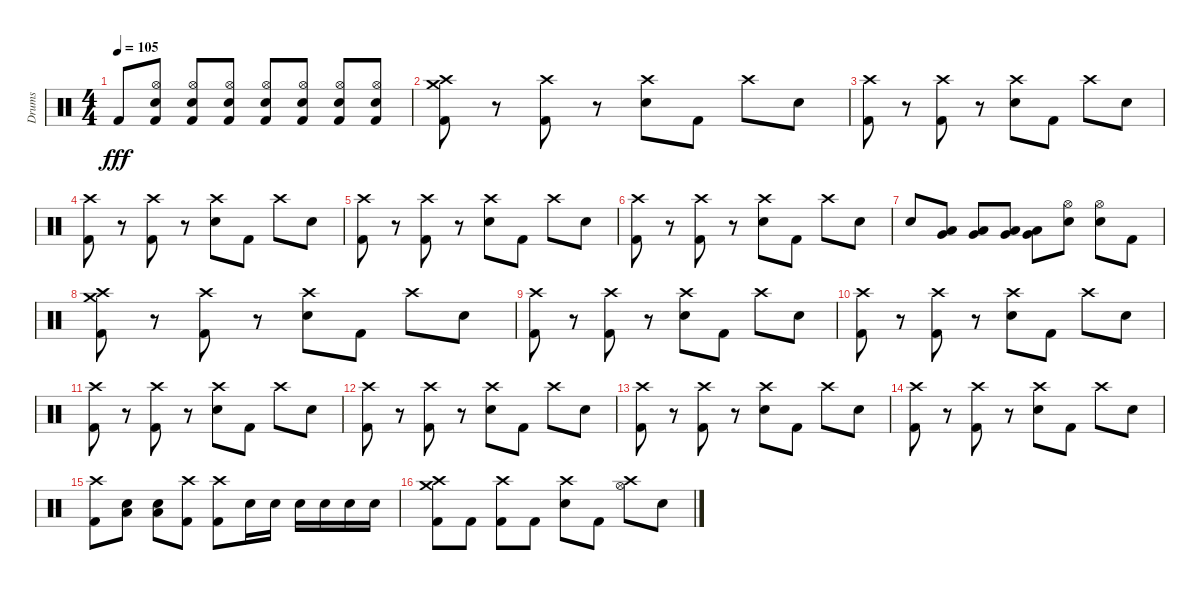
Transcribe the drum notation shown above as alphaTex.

\track ("Drums" "Drums") {instrument percussion}
\staff {score}
\articulation defaults
\ts (4 4)
\tempo 105
\clef neutral
\ks c "Kick (hit) 2".8{dy fff}
("Hi-Hat (open)" "Electric Snare (hit)" "Kick (hit) 2").8 ("Hi-Hat (open)" "Electric Snare (hit)" "Kick (hit) 2").8 ("Hi-Hat (open)" "Electric Snare (hit)" "Kick (hit) 2").8 ("Hi-Hat (open)" "Electric Snare (hit)" "Kick (hit) 2").8 ("Hi-Hat (open)" "Electric Snare (hit)" "Kick (hit) 2").8 ("Hi-Hat (open)" "Electric Snare (hit)" "Kick (hit) 2").8 ("Hi-Hat (open)" "Electric Snare (hit)" "Kick (hit) 2").8 |
("Crash medium (hit)" "Crash high (hit)" "Kick (hit) 2").8 r.8 ("Crash high (hit)" "Kick (hit) 2").8 r.8 ("Crash high (hit)" "Electric Snare (hit)").8 "Kick (hit) 2".8 "Crash high (hit)".8 "Electric Snare (hit)".8 |
("Crash high (hit)" "Kick (hit) 2").8 r.8 ("Crash high (hit)" "Kick (hit) 2").8 r.8 ("Crash high (hit)" "Electric Snare (hit)").8 "Kick (hit) 2".8 "Crash high (hit)".8 "Electric Snare (hit)".8 |
("Crash high (hit)" "Kick (hit) 2").8 r.8 ("Crash high (hit)" "Kick (hit) 2").8 r.8 ("Crash high (hit)" "Electric Snare (hit)").8 "Kick (hit) 2".8 "Crash high (hit)".8 "Electric Snare (hit)".8 |
("Crash high (hit)" "Kick (hit) 2").8 r.8 ("Crash high (hit)" "Kick (hit) 2").8 r.8 ("Crash high (hit)" "Electric Snare (hit)").8 "Kick (hit) 2".8 "Crash high (hit)".8 "Electric Snare (hit)".8 |
("Crash high (hit)" "Kick (hit) 2").8 r.8 ("Crash high (hit)" "Kick (hit) 2").8 r.8 ("Crash high (hit)" "Electric Snare (hit)").8 "Kick (hit) 2".8 "Crash high (hit)".8 "Electric Snare (hit)".8 |
"Electric Snare (hit)".8 ("Low Tom (hit)" "Very Low Tom (hit)").8 ("Low Tom (hit)" "Very Low Tom (hit)").8 ("Very Low Tom (hit)" "Low Floor Tom (hit)").8 ("Very Low Tom (hit)" "Low Floor Tom (hit)").8 ("Hi-Hat (open)" "Electric Snare (hit)").8 ("Hi-Hat (open)" "Electric Snare (hit)").8 "Kick (hit) 2".8 |
("Crash medium (hit)" "Crash high (hit)" "Kick (hit) 2").8 r.8 ("Crash high (hit)" "Kick (hit) 2").8 r.8 ("Crash high (hit)" "Electric Snare (hit)").8 "Kick (hit) 2".8 "Crash high (hit)".8 "Electric Snare (hit)".8 |
("Crash high (hit)" "Kick (hit) 2").8 r.8 ("Crash high (hit)" "Kick (hit) 2").8 r.8 ("Crash high (hit)" "Electric Snare (hit)").8 "Kick (hit) 2".8 "Crash high (hit)".8 "Electric Snare (hit)".8 |
("Crash high (hit)" "Kick (hit) 2").8 r.8 ("Crash high (hit)" "Kick (hit) 2").8 r.8 ("Crash high (hit)" "Electric Snare (hit)").8 "Kick (hit) 2".8 "Crash high (hit)".8 "Electric Snare (hit)".8 |
("Crash high (hit)" "Kick (hit) 2").8 r.8 ("Crash high (hit)" "Kick (hit) 2").8 r.8 ("Crash high (hit)" "Electric Snare (hit)").8 "Kick (hit) 2".8 "Crash high (hit)".8 "Electric Snare (hit)".8 |
("Crash high (hit)" "Kick (hit) 2").8 r.8 ("Crash high (hit)" "Kick (hit) 2").8 r.8 ("Crash high (hit)" "Electric Snare (hit)").8 "Kick (hit) 2".8 "Crash high (hit)".8 "Electric Snare (hit)".8 |
("Crash high (hit)" "Kick (hit) 2").8 r.8 ("Crash high (hit)" "Kick (hit) 2").8 r.8 ("Crash high (hit)" "Electric Snare (hit)").8 "Kick (hit) 2".8 "Crash high (hit)".8 "Electric Snare (hit)".8 |
("Crash high (hit)" "Kick (hit) 2").8 r.8 ("Crash high (hit)" "Kick (hit) 2").8 r.8 ("Crash high (hit)" "Electric Snare (hit)").8 "Kick (hit) 2".8 "Crash high (hit)".8 "Electric Snare (hit)".8 |
("Crash high (hit)" "Kick (hit) 2").8 ("Low Floor Tom (hit)" "Electric Snare (hit)").8 ("Low Floor Tom (hit)" "Electric Snare (hit)").8 ("Crash high (hit)" "Kick (hit) 2").8 ("Crash high (hit)" "Kick (hit) 2").8 "Electric Snare (hit)".16 "Electric Snare (hit)".16 "Electric Snare (hit)".16 "Electric Snare (hit)".16 "Electric Snare (hit)".16 "Electric Snare (hit)".16 |
("Crash medium (hit)" "Crash high (hit)" "Kick (hit) 2").8 "Kick (hit) 2".8 ("Crash high (hit)" "Kick (hit) 2").8 "Kick (hit) 2".8 ("Crash high (hit)" "Electric Snare (hit)").8 "Kick (hit) 2".8 ("Crash high (hit)" "Hi-Hat (open)").8 "Electric Snare (hit)".8
